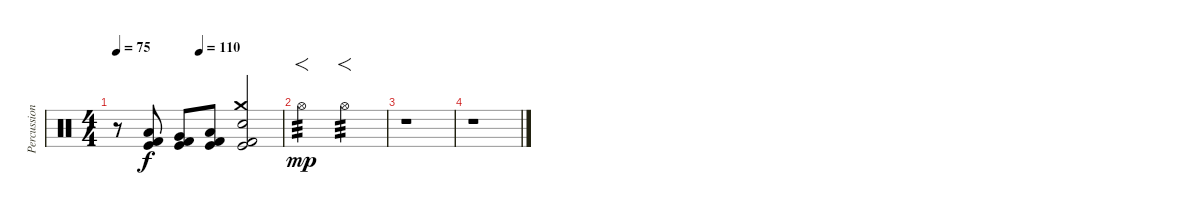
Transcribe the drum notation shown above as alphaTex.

\track ("Percussion" "Percussion") {instrument percussion}
\staff {score}
\articulation defaults
\ts (4 4)
\tempo 75
\tempo (110 0.5)
\clef neutral
\ks c
r.8{dy f} ("Low Tom (hit)" "Kick (hit) 2" "Kick (hit)").8 ("Very Low Tom (hit)" "Kick (hit) 2" "Kick (hit)").8 ("Low Floor Tom (hit)" "Kick (hit) 2" "Kick (hit)").8 ("Crash medium (hit)" "Electric Snare (hit)" "Kick (hit) 2" "Kick (hit)").2 |
"Hi-Hat (open)".2{f tp 3 dy mp} "Hi-Hat (open)".2{f tp 3} |
r.1 |
r.1
